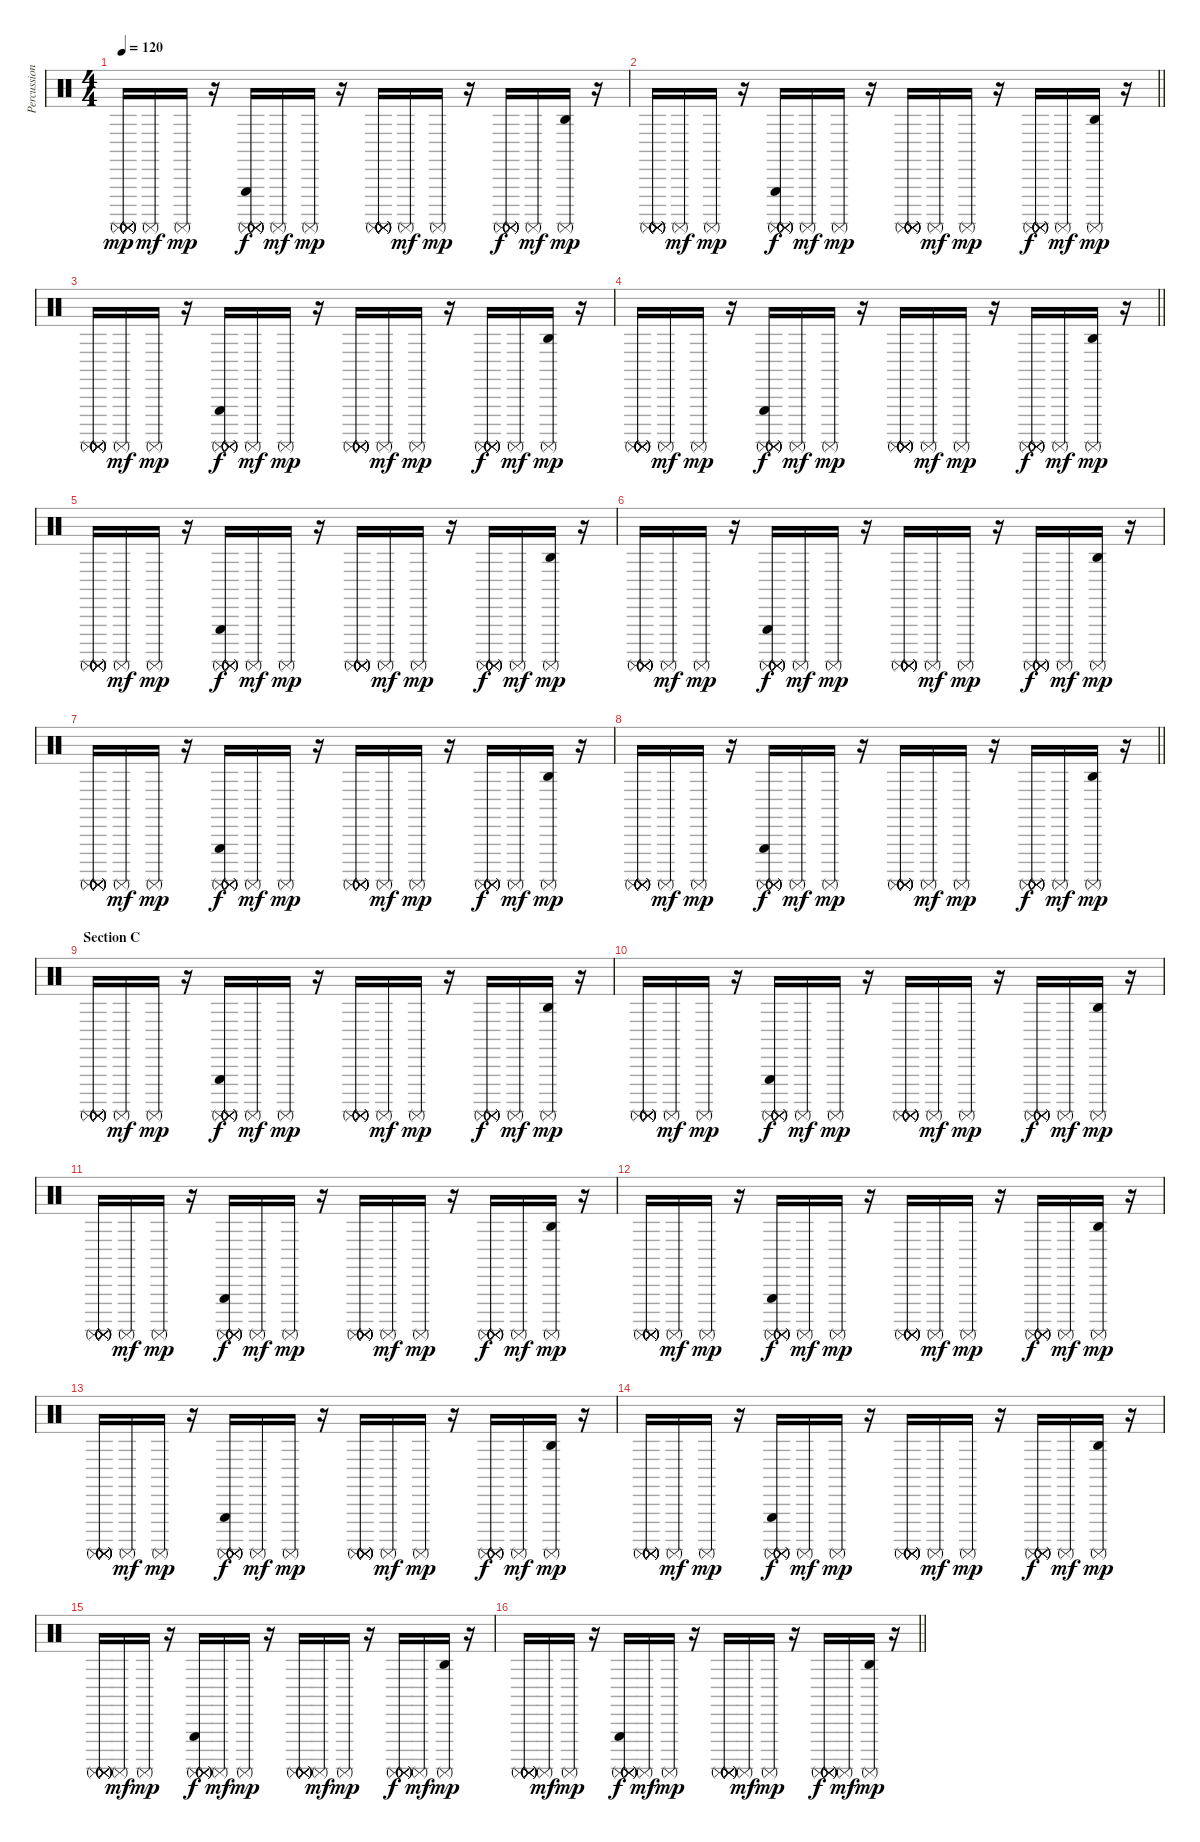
\track ("Percussion" "Percussion") {instrument percussion}
\staff {score}
\articulation defaults
\ts (4 4)
\tempo 120
\clef neutral
\ks c
("Surdo (mute)" "Surdo (mute)" "Surdo (mute)" "Surdo (mute)" "Surdo (mute)" "Surdo (mute)").16{dy mp} "Surdo (mute)".16{dy mf} "Surdo (mute)".16{dy mp} r.16 ("Triangle (hit)" "Surdo (mute)" "Surdo (mute)" "Surdo (mute)" "Surdo (mute)" "Surdo (mute)").16{dy f} "Surdo (mute)".16{dy mf} "Surdo (mute)".16{dy mp} r.16 ("Surdo (mute)" "Surdo (mute)" "Surdo (mute)" "Surdo (mute)" "Surdo (mute)" "Surdo (mute)").16 "Surdo (mute)".16{dy mf} "Surdo (mute)".16{dy mp} r.16 ("Surdo (mute)" "Surdo (mute)" "Surdo (mute)" "Surdo (mute)" "Surdo (mute)").16{dy f} "Surdo (mute)".16{dy mf} ("Agogo high (hit)" "Surdo (mute)").16{dy mp} r.16 |
\barLineRight lightlight
("Surdo (mute)" "Surdo (mute)" "Surdo (mute)" "Surdo (mute)" "Surdo (mute)" "Surdo (mute)").16 "Surdo (mute)".16{dy mf} "Surdo (mute)".16{dy mp} r.16 ("Triangle (hit)" "Surdo (mute)" "Surdo (mute)" "Surdo (mute)" "Surdo (mute)" "Surdo (mute)").16{dy f} "Surdo (mute)".16{dy mf} "Surdo (mute)".16{dy mp} r.16 ("Surdo (mute)" "Surdo (mute)" "Surdo (mute)" "Surdo (mute)" "Surdo (mute)" "Surdo (mute)").16 "Surdo (mute)".16{dy mf} "Surdo (mute)".16{dy mp} r.16 ("Surdo (mute)" "Surdo (mute)" "Surdo (mute)" "Surdo (mute)" "Surdo (mute)").16{dy f} "Surdo (mute)".16{dy mf} ("Agogo high (hit)" "Surdo (mute)").16{dy mp} r.16 |
("Surdo (mute)" "Surdo (mute)" "Surdo (mute)" "Surdo (mute)" "Surdo (mute)" "Surdo (mute)").16 "Surdo (mute)".16{dy mf} "Surdo (mute)".16{dy mp} r.16 ("Triangle (hit)" "Surdo (mute)" "Surdo (mute)" "Surdo (mute)" "Surdo (mute)" "Surdo (mute)").16{dy f} "Surdo (mute)".16{dy mf} "Surdo (mute)".16{dy mp} r.16 ("Surdo (mute)" "Surdo (mute)" "Surdo (mute)" "Surdo (mute)" "Surdo (mute)" "Surdo (mute)").16 "Surdo (mute)".16{dy mf} "Surdo (mute)".16{dy mp} r.16 ("Surdo (mute)" "Surdo (mute)" "Surdo (mute)" "Surdo (mute)" "Surdo (mute)").16{dy f} "Surdo (mute)".16{dy mf} ("Agogo high (hit)" "Surdo (mute)").16{dy mp} r.16 |
\barLineRight lightlight
("Surdo (mute)" "Surdo (mute)" "Surdo (mute)" "Surdo (mute)" "Surdo (mute)" "Surdo (mute)").16 "Surdo (mute)".16{dy mf} "Surdo (mute)".16{dy mp} r.16 ("Triangle (hit)" "Surdo (mute)" "Surdo (mute)" "Surdo (mute)" "Surdo (mute)" "Surdo (mute)").16{dy f} "Surdo (mute)".16{dy mf} "Surdo (mute)".16{dy mp} r.16 ("Surdo (mute)" "Surdo (mute)" "Surdo (mute)" "Surdo (mute)" "Surdo (mute)" "Surdo (mute)").16 "Surdo (mute)".16{dy mf} "Surdo (mute)".16{dy mp} r.16 ("Surdo (mute)" "Surdo (mute)" "Surdo (mute)" "Surdo (mute)" "Surdo (mute)").16{dy f} "Surdo (mute)".16{dy mf} ("Agogo high (hit)" "Surdo (mute)").16{dy mp} r.16 |
("Surdo (mute)" "Surdo (mute)" "Surdo (mute)" "Surdo (mute)" "Surdo (mute)" "Surdo (mute)").16 "Surdo (mute)".16{dy mf} "Surdo (mute)".16{dy mp} r.16 ("Triangle (hit)" "Surdo (mute)" "Surdo (mute)" "Surdo (mute)" "Surdo (mute)" "Surdo (mute)").16{dy f} "Surdo (mute)".16{dy mf} "Surdo (mute)".16{dy mp} r.16 ("Surdo (mute)" "Surdo (mute)" "Surdo (mute)" "Surdo (mute)" "Surdo (mute)" "Surdo (mute)").16 "Surdo (mute)".16{dy mf} "Surdo (mute)".16{dy mp} r.16 ("Surdo (mute)" "Surdo (mute)" "Surdo (mute)" "Surdo (mute)" "Surdo (mute)").16{dy f} "Surdo (mute)".16{dy mf} ("Agogo high (hit)" "Surdo (mute)").16{dy mp} r.16 |
("Surdo (mute)" "Surdo (mute)" "Surdo (mute)" "Surdo (mute)" "Surdo (mute)" "Surdo (mute)").16 "Surdo (mute)".16{dy mf} "Surdo (mute)".16{dy mp} r.16 ("Triangle (hit)" "Surdo (mute)" "Surdo (mute)" "Surdo (mute)" "Surdo (mute)" "Surdo (mute)").16{dy f} "Surdo (mute)".16{dy mf} "Surdo (mute)".16{dy mp} r.16 ("Surdo (mute)" "Surdo (mute)" "Surdo (mute)" "Surdo (mute)" "Surdo (mute)" "Surdo (mute)").16 "Surdo (mute)".16{dy mf} "Surdo (mute)".16{dy mp} r.16 ("Surdo (mute)" "Surdo (mute)" "Surdo (mute)" "Surdo (mute)" "Surdo (mute)").16{dy f} "Surdo (mute)".16{dy mf} ("Agogo high (hit)" "Surdo (mute)").16{dy mp} r.16 |
("Surdo (mute)" "Surdo (mute)" "Surdo (mute)" "Surdo (mute)" "Surdo (mute)" "Surdo (mute)").16 "Surdo (mute)".16{dy mf} "Surdo (mute)".16{dy mp} r.16 ("Triangle (hit)" "Surdo (mute)" "Surdo (mute)" "Surdo (mute)" "Surdo (mute)" "Surdo (mute)").16{dy f} "Surdo (mute)".16{dy mf} "Surdo (mute)".16{dy mp} r.16 ("Surdo (mute)" "Surdo (mute)" "Surdo (mute)" "Surdo (mute)" "Surdo (mute)" "Surdo (mute)").16 "Surdo (mute)".16{dy mf} "Surdo (mute)".16{dy mp} r.16 ("Surdo (mute)" "Surdo (mute)" "Surdo (mute)" "Surdo (mute)" "Surdo (mute)").16{dy f} "Surdo (mute)".16{dy mf} ("Agogo high (hit)" "Surdo (mute)").16{dy mp} r.16 |
\barLineRight lightlight
("Surdo (mute)" "Surdo (mute)" "Surdo (mute)" "Surdo (mute)" "Surdo (mute)" "Surdo (mute)").16 "Surdo (mute)".16{dy mf} "Surdo (mute)".16{dy mp} r.16 ("Triangle (hit)" "Surdo (mute)" "Surdo (mute)" "Surdo (mute)" "Surdo (mute)" "Surdo (mute)").16{dy f} "Surdo (mute)".16{dy mf} "Surdo (mute)".16{dy mp} r.16 ("Surdo (mute)" "Surdo (mute)" "Surdo (mute)" "Surdo (mute)" "Surdo (mute)" "Surdo (mute)").16 "Surdo (mute)".16{dy mf} "Surdo (mute)".16{dy mp} r.16 ("Surdo (mute)" "Surdo (mute)" "Surdo (mute)" "Surdo (mute)" "Surdo (mute)").16{dy f} "Surdo (mute)".16{dy mf} ("Agogo high (hit)" "Surdo (mute)").16{dy mp} r.16 |
\section ("" "Section C")
("Surdo (mute)" "Surdo (mute)" "Surdo (mute)" "Surdo (mute)" "Surdo (mute)" "Surdo (mute)").16 "Surdo (mute)".16{dy mf} "Surdo (mute)".16{dy mp} r.16 ("Triangle (hit)" "Surdo (mute)" "Surdo (mute)" "Surdo (mute)" "Surdo (mute)" "Surdo (mute)").16{dy f} "Surdo (mute)".16{dy mf} "Surdo (mute)".16{dy mp} r.16 ("Surdo (mute)" "Surdo (mute)" "Surdo (mute)" "Surdo (mute)" "Surdo (mute)" "Surdo (mute)").16 "Surdo (mute)".16{dy mf} "Surdo (mute)".16{dy mp} r.16 ("Surdo (mute)" "Surdo (mute)" "Surdo (mute)" "Surdo (mute)" "Surdo (mute)").16{dy f} "Surdo (mute)".16{dy mf} ("Agogo high (hit)" "Surdo (mute)").16{dy mp} r.16 |
("Surdo (mute)" "Surdo (mute)" "Surdo (mute)" "Surdo (mute)" "Surdo (mute)" "Surdo (mute)").16 "Surdo (mute)".16{dy mf} "Surdo (mute)".16{dy mp} r.16 ("Triangle (hit)" "Surdo (mute)" "Surdo (mute)" "Surdo (mute)" "Surdo (mute)" "Surdo (mute)").16{dy f} "Surdo (mute)".16{dy mf} "Surdo (mute)".16{dy mp} r.16 ("Surdo (mute)" "Surdo (mute)" "Surdo (mute)" "Surdo (mute)" "Surdo (mute)" "Surdo (mute)").16 "Surdo (mute)".16{dy mf} "Surdo (mute)".16{dy mp} r.16 ("Surdo (mute)" "Surdo (mute)" "Surdo (mute)" "Surdo (mute)" "Surdo (mute)").16{dy f} "Surdo (mute)".16{dy mf} ("Agogo high (hit)" "Surdo (mute)").16{dy mp} r.16 |
("Surdo (mute)" "Surdo (mute)" "Surdo (mute)" "Surdo (mute)" "Surdo (mute)" "Surdo (mute)").16 "Surdo (mute)".16{dy mf} "Surdo (mute)".16{dy mp} r.16 ("Triangle (hit)" "Surdo (mute)" "Surdo (mute)" "Surdo (mute)" "Surdo (mute)" "Surdo (mute)").16{dy f} "Surdo (mute)".16{dy mf} "Surdo (mute)".16{dy mp} r.16 ("Surdo (mute)" "Surdo (mute)" "Surdo (mute)" "Surdo (mute)" "Surdo (mute)" "Surdo (mute)").16 "Surdo (mute)".16{dy mf} "Surdo (mute)".16{dy mp} r.16 ("Surdo (mute)" "Surdo (mute)" "Surdo (mute)" "Surdo (mute)" "Surdo (mute)").16{dy f} "Surdo (mute)".16{dy mf} ("Agogo high (hit)" "Surdo (mute)").16{dy mp} r.16 |
("Surdo (mute)" "Surdo (mute)" "Surdo (mute)" "Surdo (mute)" "Surdo (mute)" "Surdo (mute)").16 "Surdo (mute)".16{dy mf} "Surdo (mute)".16{dy mp} r.16 ("Triangle (hit)" "Surdo (mute)" "Surdo (mute)" "Surdo (mute)" "Surdo (mute)" "Surdo (mute)").16{dy f} "Surdo (mute)".16{dy mf} "Surdo (mute)".16{dy mp} r.16 ("Surdo (mute)" "Surdo (mute)" "Surdo (mute)" "Surdo (mute)" "Surdo (mute)" "Surdo (mute)").16 "Surdo (mute)".16{dy mf} "Surdo (mute)".16{dy mp} r.16 ("Surdo (mute)" "Surdo (mute)" "Surdo (mute)" "Surdo (mute)" "Surdo (mute)").16{dy f} "Surdo (mute)".16{dy mf} ("Agogo high (hit)" "Surdo (mute)").16{dy mp} r.16 |
("Surdo (mute)" "Surdo (mute)" "Surdo (mute)" "Surdo (mute)" "Surdo (mute)" "Surdo (mute)").16 "Surdo (mute)".16{dy mf} "Surdo (mute)".16{dy mp} r.16 ("Triangle (hit)" "Surdo (mute)" "Surdo (mute)" "Surdo (mute)" "Surdo (mute)" "Surdo (mute)").16{dy f} "Surdo (mute)".16{dy mf} "Surdo (mute)".16{dy mp} r.16 ("Surdo (mute)" "Surdo (mute)" "Surdo (mute)" "Surdo (mute)" "Surdo (mute)" "Surdo (mute)").16 "Surdo (mute)".16{dy mf} "Surdo (mute)".16{dy mp} r.16 ("Surdo (mute)" "Surdo (mute)" "Surdo (mute)" "Surdo (mute)" "Surdo (mute)").16{dy f} "Surdo (mute)".16{dy mf} ("Agogo high (hit)" "Surdo (mute)").16{dy mp} r.16 |
("Surdo (mute)" "Surdo (mute)" "Surdo (mute)" "Surdo (mute)" "Surdo (mute)" "Surdo (mute)").16 "Surdo (mute)".16{dy mf} "Surdo (mute)".16{dy mp} r.16 ("Triangle (hit)" "Surdo (mute)" "Surdo (mute)" "Surdo (mute)" "Surdo (mute)" "Surdo (mute)").16{dy f} "Surdo (mute)".16{dy mf} "Surdo (mute)".16{dy mp} r.16 ("Surdo (mute)" "Surdo (mute)" "Surdo (mute)" "Surdo (mute)" "Surdo (mute)" "Surdo (mute)").16 "Surdo (mute)".16{dy mf} "Surdo (mute)".16{dy mp} r.16 ("Surdo (mute)" "Surdo (mute)" "Surdo (mute)" "Surdo (mute)" "Surdo (mute)").16{dy f} "Surdo (mute)".16{dy mf} ("Agogo high (hit)" "Surdo (mute)").16{dy mp} r.16 |
("Surdo (mute)" "Surdo (mute)" "Surdo (mute)" "Surdo (mute)" "Surdo (mute)" "Surdo (mute)").16 "Surdo (mute)".16{dy mf} "Surdo (mute)".16{dy mp} r.16 ("Triangle (hit)" "Surdo (mute)" "Surdo (mute)" "Surdo (mute)" "Surdo (mute)" "Surdo (mute)").16{dy f} "Surdo (mute)".16{dy mf} "Surdo (mute)".16{dy mp} r.16 ("Surdo (mute)" "Surdo (mute)" "Surdo (mute)" "Surdo (mute)" "Surdo (mute)" "Surdo (mute)").16 "Surdo (mute)".16{dy mf} "Surdo (mute)".16{dy mp} r.16 ("Surdo (mute)" "Surdo (mute)" "Surdo (mute)" "Surdo (mute)" "Surdo (mute)").16{dy f} "Surdo (mute)".16{dy mf} ("Agogo high (hit)" "Surdo (mute)").16{dy mp} r.16 |
\barLineRight lightlight
("Surdo (mute)" "Surdo (mute)" "Surdo (mute)" "Surdo (mute)" "Surdo (mute)" "Surdo (mute)").16 "Surdo (mute)".16{dy mf} "Surdo (mute)".16{dy mp} r.16 ("Triangle (hit)" "Surdo (mute)" "Surdo (mute)" "Surdo (mute)" "Surdo (mute)" "Surdo (mute)").16{dy f} "Surdo (mute)".16{dy mf} "Surdo (mute)".16{dy mp} r.16 ("Surdo (mute)" "Surdo (mute)" "Surdo (mute)" "Surdo (mute)" "Surdo (mute)" "Surdo (mute)").16 "Surdo (mute)".16{dy mf} "Surdo (mute)".16{dy mp} r.16 ("Surdo (mute)" "Surdo (mute)" "Surdo (mute)" "Surdo (mute)" "Surdo (mute)").16{dy f} "Surdo (mute)".16{dy mf} ("Agogo high (hit)" "Surdo (mute)").16{dy mp} r.16
